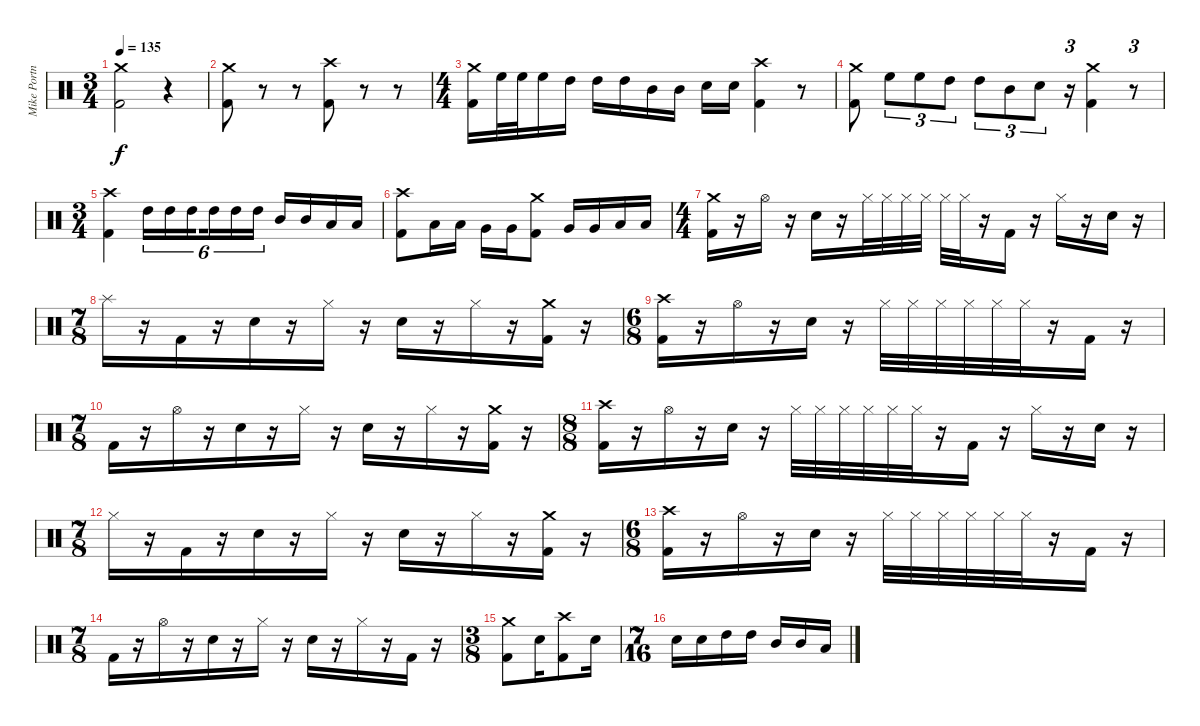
\track ("Mike Portnoy Drums" "Mike Portn") {instrument percussion}
\staff {score}
\articulation defaults
\ts (3 4)
\tempo 135
\clef neutral
\ks c
("Crash medium (hit)" "Kick (hit) 2").2{dy f} r.4 |
("Crash medium (hit)" "Kick (hit) 2").8 r.8 r.8 ("Crash high (hit)" "Kick (hit) 2").8 r.8 r.8 |
\ts (4 4)
("Crash medium (hit)" "Kick (hit) 2").16 "High Floor Tom (hit)".32 "High Floor Tom (hit)".32 "High Floor Tom (hit)".16 "High Tom (hit)".16 "High Tom (hit)".16 "High Tom (hit)".16 "Mid Tom (hit)".16 "Mid Tom (hit)".16 "Snare (hit) 2".16 "Snare (hit) 2".16 ("Crash high (hit)" "Kick (hit) 2").4 r.8 |
("Crash medium (hit)" "Kick (hit) 2").8 "High Floor Tom (hit)".8{tu (3 2)} "High Floor Tom (hit)".8{tu (3 2)} "High Tom (hit)".8{tu (3 2)} "High Tom (hit)".8{tu (3 2)} "Mid Tom (hit)".8{tu (3 2)} "Snare (hit) 2".8{tu (3 2)} r.16{tu (3 2)} ("Crash medium (hit)" "Kick (hit) 2").4 r.8{tu (3 2)} |
\ts (3 4)
("Crash high (hit)" "Kick (hit) 2").4 "High Tom (hit)".16{tu (6 4)} "High Tom (hit)".16{tu (6 4)} "High Tom (hit)".16{tu (6 4) beam splitsecondary} "High Tom (hit)".16{tu (6 4)} "High Tom (hit)".16{tu (6 4)} "High Tom (hit)".16{tu (6 4)} "Mid Tom (hit)".16 "Mid Tom (hit)".16 "Low Tom (hit)".16 "Low Tom (hit)".16 |
("Crash high (hit)" "Kick (hit) 2").8 "Low Tom (hit)".16 "Low Tom (hit)".16 "Very Low Tom (hit)".16 "Very Low Tom (hit)".16 ("Crash medium (hit)" "Kick (hit) 2").8 "Very Low Tom (hit)".16 "Very Low Tom (hit)".16 "Low Floor Tom (hit)".16 "Low Floor Tom (hit)".16 |
\ts (4 4)
("Crash medium (hit)" "Kick (hit) 2").16 r.16 "Hi-Hat (open)".16 r.16 "Snare (hit) 2".16 r.16 "Hi-Hat (closed)".32 "Hi-Hat (closed)".32 "Hi-Hat (closed)".32 "Hi-Hat (closed)".32 "Hi-Hat (closed)".32 "Hi-Hat (closed)".32 r.16 "Kick (hit) 2".16 r.16 "Hi-Hat (closed)".16 r.16 "Snare (hit) 2".16 r.16 |
\ts (7 8)
"Splash (hit)".16 r.16 "Kick (hit) 2".16 r.16 "Snare (hit) 2".16 r.16 "Hi-Hat (closed)".16 r.16 "Snare (hit) 2".16 r.16 "Hi-Hat (closed)".16 r.16 ("Crash medium (hit)" "Kick (hit) 2").16 r.16 |
\ts (6 8)
("Crash high (hit)" "Kick (hit) 2").16 r.16 "Hi-Hat (open)".16 r.16 "Snare (hit) 2".16 r.16 "Hi-Hat (closed)".32 "Hi-Hat (closed)".32 "Hi-Hat (closed)".32 "Hi-Hat (closed)".32 "Hi-Hat (closed)".32 "Hi-Hat (closed)".32 r.16 "Kick (hit) 2".16 r.16 |
\ts (7 8)
"Kick (hit) 2".16 r.16 "Hi-Hat (open)".16 r.16 "Snare (hit) 2".16 r.16 "Hi-Hat (closed)".16 r.16 "Snare (hit) 2".16 r.16 "Hi-Hat (closed)".16 r.16 ("Crash medium (hit)" "Kick (hit) 2").16 r.16 |
\ts (8 8)
("Crash high (hit)" "Kick (hit) 2").16 r.16 "Hi-Hat (open)".16 r.16 "Snare (hit) 2".16 r.16 "Hi-Hat (closed)".32 "Hi-Hat (closed)".32 "Hi-Hat (closed)".32 "Hi-Hat (closed)".32 "Hi-Hat (closed)".32 "Hi-Hat (closed)".32 r.16 "Kick (hit) 2".16 r.16 "Hi-Hat (closed)".16 r.16 "Snare (hit) 2".16 r.16 |
\ts (7 8)
"Hi-Hat (closed)".16 r.16 "Kick (hit) 2".16 r.16 "Snare (hit) 2".16 r.16 "Hi-Hat (closed)".16 r.16 "Snare (hit) 2".16 r.16 "Hi-Hat (closed)".16 r.16 ("Crash medium (hit)" "Kick (hit) 2").16 r.16 |
\ts (6 8)
("Crash high (hit)" "Kick (hit) 2").16 r.16 "Hi-Hat (open)".16 r.16 "Snare (hit) 2".16 r.16 "Hi-Hat (closed)".32 "Hi-Hat (closed)".32 "Hi-Hat (closed)".32 "Hi-Hat (closed)".32 "Hi-Hat (closed)".32 "Hi-Hat (closed)".32 r.16 "Kick (hit) 2".16 r.16 |
\ts (7 8)
"Kick (hit) 2".16 r.16 "Hi-Hat (open)".16 r.16 "Snare (hit) 2".16 r.16 "Hi-Hat (closed)".16 r.16 "Snare (hit) 2".16 r.16 "Hi-Hat (closed)".16 r.16 "Kick (hit) 2".16 r.16 |
\ts (3 8)
("Crash medium (hit)" "Kick (hit) 2").8 "Snare (hit) 2".16 ("Crash high (hit)" "Kick (hit) 2").8 "Snare (hit) 2".16 |
\ts (7 16)
"Snare (hit) 2".16 "Snare (hit) 2".16 "High Tom (hit)".16 "High Tom (hit)".16 "Mid Tom (hit)".16 "Mid Tom (hit)".16 "Low Tom (hit)".16
